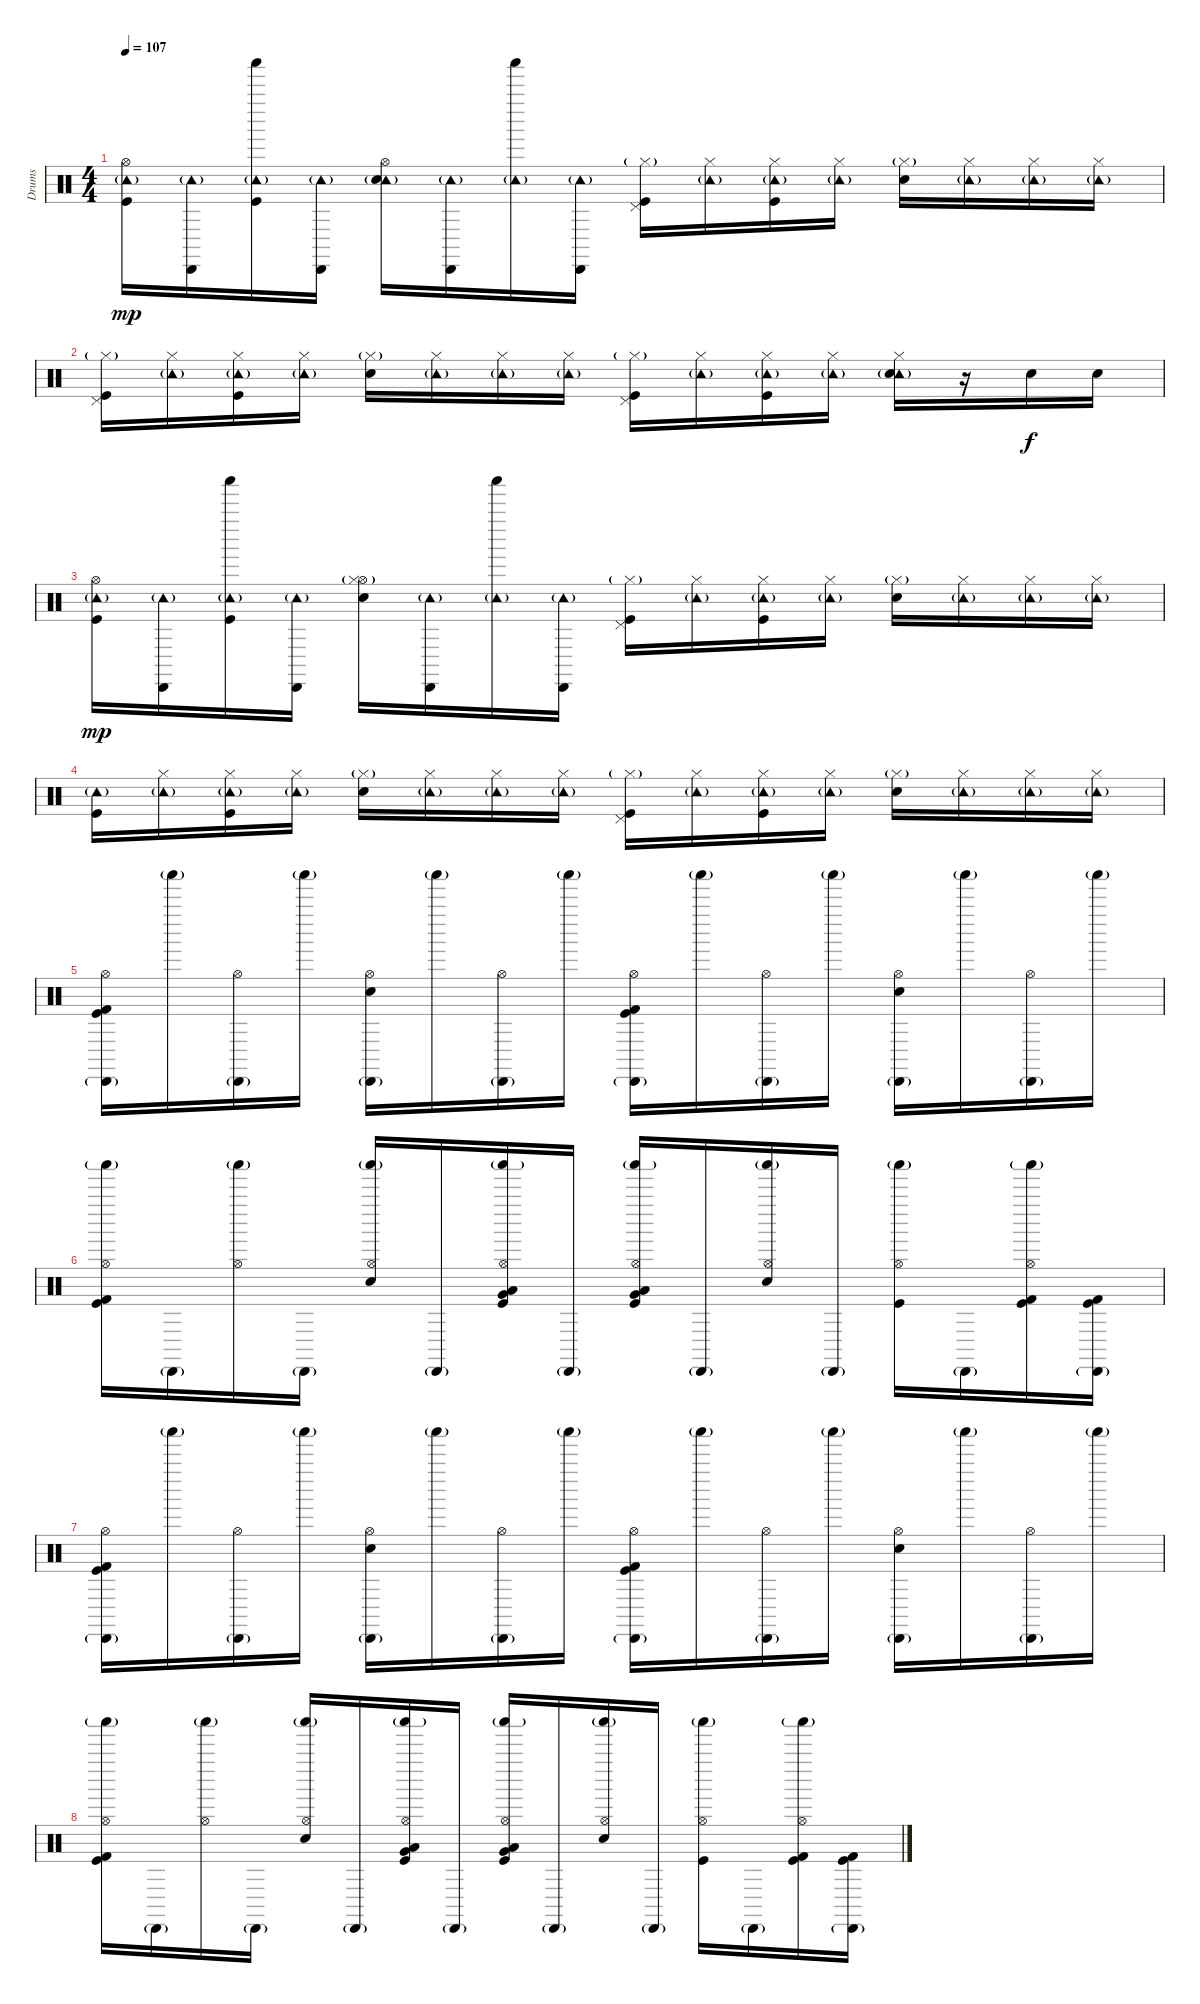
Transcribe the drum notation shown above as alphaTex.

\track ("Drums" "Drums") {instrument percussion}
\staff {score}
\articulation defaults
\ts (4 4)
\tempo 107
\clef neutral
\ks c
("Hi-Hat (open)" "Tambourine (hit)"{g} "Kick (hit)").16{dy mp} ("Cabasa (hit)" "Tambourine (hit)"{g}).16 ("Shaker (hit)" "Tambourine (hit)"{g} "Kick (hit)").16 ("Cabasa (hit)" "Tambourine (hit)"{g}).16 ("Hi-Hat (open)" "Tambourine (hit)"{g} "Electric Snare (hit)").16 ("Cabasa (hit)" "Tambourine (hit)"{g}).16 ("Shaker (hit)" "Tambourine (hit)"{g}).16 ("Cabasa (hit)" "Tambourine (hit)"{g}).16 ("Hi-Hat (closed)"{g} "Pedal Hi-Hat (hit)" "Kick (hit)").16 ("Hi-Hat (closed)" "Tambourine (hit)"{g}).16 ("Hi-Hat (closed)" "Tambourine (hit)"{g} "Kick (hit)").16 ("Hi-Hat (closed)" "Tambourine (hit)"{g}).16 ("Hi-Hat (closed)"{g} "Electric Snare (hit)").16 ("Hi-Hat (closed)" "Tambourine (hit)"{g}).16 ("Hi-Hat (closed)" "Tambourine (hit)"{g}).16 ("Hi-Hat (closed)" "Tambourine (hit)"{g}).16 |
("Hi-Hat (closed)"{g} "Pedal Hi-Hat (hit)" "Kick (hit)").16 ("Hi-Hat (closed)" "Tambourine (hit)"{g}).16 ("Hi-Hat (closed)" "Tambourine (hit)"{g} "Kick (hit)").16 ("Hi-Hat (closed)" "Tambourine (hit)"{g}).16 ("Hi-Hat (closed)"{g} "Electric Snare (hit)").16 ("Hi-Hat (closed)" "Tambourine (hit)"{g}).16 ("Hi-Hat (closed)" "Tambourine (hit)"{g}).16 ("Hi-Hat (closed)" "Tambourine (hit)"{g}).16 ("Hi-Hat (closed)"{g} "Pedal Hi-Hat (hit)" "Kick (hit)").16 ("Hi-Hat (closed)" "Tambourine (hit)"{g}).16 ("Hi-Hat (closed)" "Tambourine (hit)"{g} "Kick (hit)").16 ("Hi-Hat (closed)" "Tambourine (hit)"{g}).16 ("Hi-Hat (closed)" "Tambourine (hit)"{g} "Electric Snare (hit)").16 r.16 "Electric Snare (hit)".16{dy f} "Electric Snare (hit)".16 |
("Hi-Hat (open)" "Tambourine (hit)"{g} "Kick (hit)").16{dy mp} ("Cabasa (hit)" "Tambourine (hit)"{g}).16 ("Shaker (hit)" "Tambourine (hit)"{g} "Kick (hit)").16 ("Cabasa (hit)" "Tambourine (hit)"{g}).16 ("Hi-Hat (open)" "Hi-Hat (closed)"{g} "Electric Snare (hit)").16 ("Cabasa (hit)" "Tambourine (hit)"{g}).16 ("Shaker (hit)" "Tambourine (hit)"{g}).16 ("Cabasa (hit)" "Tambourine (hit)"{g}).16 ("Hi-Hat (closed)"{g} "Pedal Hi-Hat (hit)" "Kick (hit)").16 ("Hi-Hat (closed)" "Tambourine (hit)"{g}).16 ("Hi-Hat (closed)" "Tambourine (hit)"{g} "Kick (hit)").16 ("Hi-Hat (closed)" "Tambourine (hit)"{g}).16 ("Hi-Hat (closed)"{g} "Electric Snare (hit)").16 ("Hi-Hat (closed)" "Tambourine (hit)"{g}).16 ("Hi-Hat (closed)" "Tambourine (hit)"{g}).16 ("Hi-Hat (closed)" "Tambourine (hit)"{g}).16 |
("Tambourine (hit)"{g} "Kick (hit)").16 ("Hi-Hat (closed)" "Tambourine (hit)"{g}).16 ("Hi-Hat (closed)" "Tambourine (hit)"{g} "Kick (hit)").16 ("Hi-Hat (closed)" "Tambourine (hit)"{g}).16 ("Hi-Hat (closed)"{g} "Electric Snare (hit)").16 ("Hi-Hat (closed)" "Tambourine (hit)"{g}).16 ("Hi-Hat (closed)" "Tambourine (hit)"{g}).16 ("Hi-Hat (closed)" "Tambourine (hit)"{g}).16 ("Hi-Hat (closed)"{g} "Pedal Hi-Hat (hit)" "Kick (hit)").16 ("Hi-Hat (closed)" "Tambourine (hit)"{g}).16 ("Hi-Hat (closed)" "Tambourine (hit)"{g} "Kick (hit)").16 ("Hi-Hat (closed)" "Tambourine (hit)"{g}).16 ("Hi-Hat (closed)"{g} "Electric Snare (hit)").16 ("Hi-Hat (closed)" "Tambourine (hit)"{g}).16 ("Hi-Hat (closed)" "Tambourine (hit)"{g}).16 ("Hi-Hat (closed)" "Tambourine (hit)"{g}).16 |
("Hi-Hat (open)" "Cabasa (hit)"{g} "Kick (hit) 2" "Kick (hit)").16{volume 16} "Shaker (hit)"{g}.16 ("Hi-Hat (open)" "Cabasa (hit)"{g}).16 "Shaker (hit)"{g}.16 ("Hi-Hat (open)" "Cabasa (hit)"{g} "Electric Snare (hit)").16 "Shaker (hit)"{g}.16 ("Hi-Hat (open)" "Cabasa (hit)"{g}).16 "Shaker (hit)"{g}.16 ("Hi-Hat (open)" "Cabasa (hit)"{g} "Kick (hit) 2" "Kick (hit)").16 "Shaker (hit)"{g}.16 ("Hi-Hat (open)" "Cabasa (hit)"{g}).16 "Shaker (hit)"{g}.16 ("Hi-Hat (open)" "Cabasa (hit)"{g} "Electric Snare (hit)").16 "Shaker (hit)"{g}.16 ("Hi-Hat (open)" "Cabasa (hit)"{g}).16 "Shaker (hit)"{g}.16 |
("Hi-Hat (open)" "Shaker (hit)"{g} "Kick (hit) 2" "Kick (hit)").16 "Cabasa (hit)"{g}.16 ("Hi-Hat (open)" "Shaker (hit)"{g}).16 "Cabasa (hit)"{g}.16 ("Hi-Hat (open)" "Shaker (hit)"{g} "Electric Snare (hit)").16 "Cabasa (hit)"{g}.16 ("Hi-Hat (open)" "Shaker (hit)"{g} "Kick (hit)" "Very Low Tom (hit)" "Low Tom (hit)").16 "Cabasa (hit)"{g}.16 ("Hi-Hat (open)" "Shaker (hit)"{g} "Kick (hit)" "Very Low Tom (hit)" "Low Tom (hit)").16 "Cabasa (hit)"{g}.16 ("Hi-Hat (open)" "Shaker (hit)"{g} "Electric Snare (hit)").16 "Cabasa (hit)"{g}.16 ("Hi-Hat (open)" "Shaker (hit)"{g} "Kick (hit)").16 "Cabasa (hit)"{g}.16 ("Hi-Hat (open)" "Shaker (hit)"{g} "Kick (hit) 2" "Kick (hit)").16 ("Cabasa (hit)"{g} "Kick (hit) 2" "Kick (hit)").16 |
("Hi-Hat (open)" "Cabasa (hit)"{g} "Kick (hit) 2" "Kick (hit)").16 "Shaker (hit)"{g}.16 ("Hi-Hat (open)" "Cabasa (hit)"{g}).16 "Shaker (hit)"{g}.16 ("Hi-Hat (open)" "Cabasa (hit)"{g} "Electric Snare (hit)").16 "Shaker (hit)"{g}.16 ("Hi-Hat (open)" "Cabasa (hit)"{g}).16 "Shaker (hit)"{g}.16 ("Hi-Hat (open)" "Cabasa (hit)"{g} "Kick (hit) 2" "Kick (hit)").16 "Shaker (hit)"{g}.16 ("Hi-Hat (open)" "Cabasa (hit)"{g}).16 "Shaker (hit)"{g}.16 ("Hi-Hat (open)" "Cabasa (hit)"{g} "Electric Snare (hit)").16 "Shaker (hit)"{g}.16 ("Hi-Hat (open)" "Cabasa (hit)"{g}).16 "Shaker (hit)"{g}.16 |
("Hi-Hat (open)" "Shaker (hit)"{g} "Kick (hit) 2" "Kick (hit)").16 "Cabasa (hit)"{g}.16 ("Hi-Hat (open)" "Shaker (hit)"{g}).16 "Cabasa (hit)"{g}.16 ("Hi-Hat (open)" "Shaker (hit)"{g} "Electric Snare (hit)").16 "Cabasa (hit)"{g}.16 ("Hi-Hat (open)" "Shaker (hit)"{g} "Kick (hit)" "Very Low Tom (hit)" "Low Tom (hit)").16 "Cabasa (hit)"{g}.16 ("Hi-Hat (open)" "Shaker (hit)"{g} "Kick (hit)" "Very Low Tom (hit)" "Low Tom (hit)").16 "Cabasa (hit)"{g}.16 ("Hi-Hat (open)" "Shaker (hit)"{g} "Electric Snare (hit)").16 "Cabasa (hit)"{g}.16 ("Hi-Hat (open)" "Shaker (hit)"{g} "Kick (hit)").16 "Cabasa (hit)"{g}.16 ("Hi-Hat (open)" "Shaker (hit)"{g} "Kick (hit) 2" "Kick (hit)").16 ("Cabasa (hit)"{g} "Kick (hit) 2" "Kick (hit)").16
